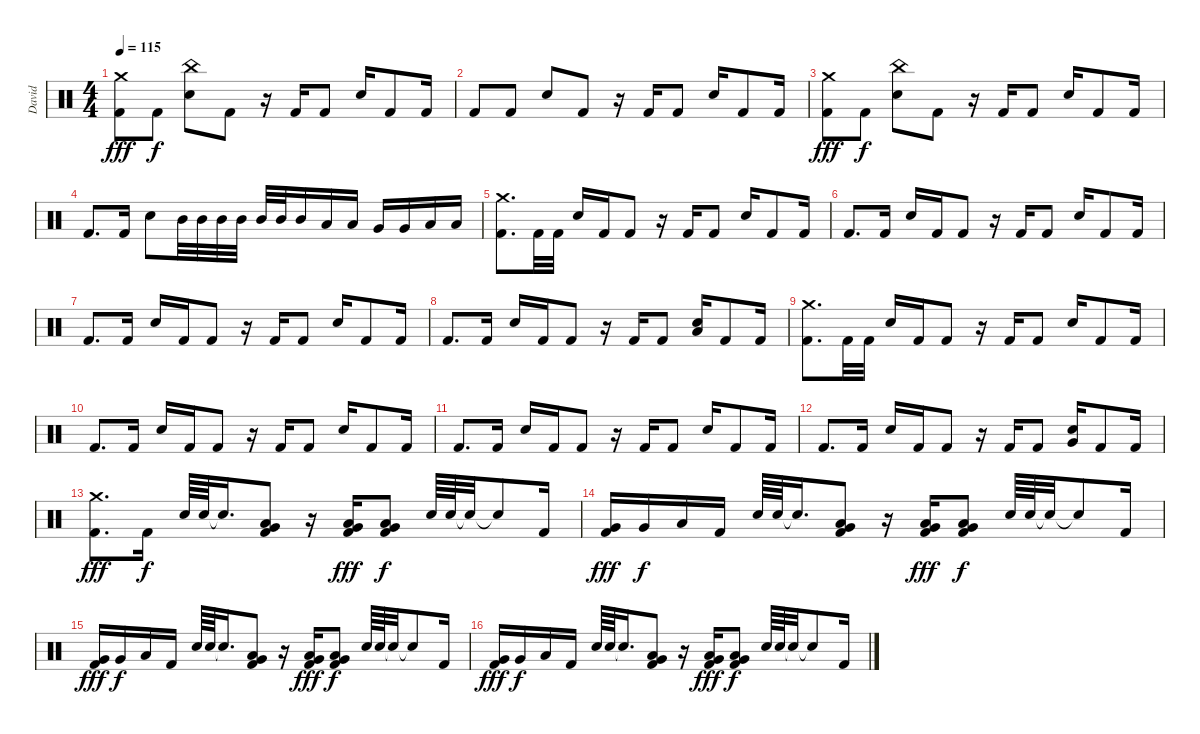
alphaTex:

\track ("David" "David") {instrument percussion}
\staff {score}
\articulation defaults
\ts (4 4)
\tempo 115
\clef neutral
\ks c
("Crash medium (hit)" "Kick (hit) 2").8{dy fff} "Kick (hit) 2".8{dy f} ("China (hit)" "Snare (hit) 2").8 "Kick (hit) 2".8 r.16 "Kick (hit) 2".16 "Kick (hit) 2".8 "Snare (hit) 2".16 "Kick (hit) 2".8 "Kick (hit) 2".16 |
"Kick (hit) 2".8 "Kick (hit) 2".8 "Snare (hit) 2".8 "Kick (hit) 2".8 r.16 "Kick (hit) 2".16 "Kick (hit) 2".8 "Snare (hit) 2".16 "Kick (hit) 2".8 "Kick (hit) 2".16 |
("Crash medium (hit)" "Kick (hit) 2").8{dy fff} "Kick (hit) 2".8{dy f} ("China (hit)" "Snare (hit) 2").8 "Kick (hit) 2".8 r.16 "Kick (hit) 2".16 "Kick (hit) 2".8 "Snare (hit) 2".16 "Kick (hit) 2".8 "Kick (hit) 2".16 |
"Kick (hit) 2".8{d} "Kick (hit) 2".16 "Snare (hit) 2".8 "Mid Tom (hit)".32 "Mid Tom (hit)".32 "Mid Tom (hit)".32 "Mid Tom (hit)".32 "Mid Tom (hit)".32 "Mid Tom (hit)".32 "Mid Tom (hit)".16 "Low Tom (hit)".16 "Low Tom (hit)".16 "Very Low Tom (hit)".16 "Very Low Tom (hit)".16 "Low Floor Tom (hit)".16 "Low Floor Tom (hit)".16 |
("Crash medium (hit)" "Kick (hit) 2").8{d} "Kick (hit) 2".32 "Kick (hit) 2".32 "Snare (hit) 2".16 "Kick (hit) 2".16 "Kick (hit) 2".8 r.16 "Kick (hit) 2".16 "Kick (hit) 2".8 "Snare (hit) 2".16 "Kick (hit) 2".8 "Kick (hit) 2".16 |
"Kick (hit) 2".8{d} "Kick (hit) 2".16 "Snare (hit) 2".16 "Kick (hit) 2".16 "Kick (hit) 2".8 r.16 "Kick (hit) 2".16 "Kick (hit) 2".8 "Snare (hit) 2".16 "Kick (hit) 2".8 "Kick (hit) 2".16 |
"Kick (hit) 2".8{d} "Kick (hit) 2".16 "Snare (hit) 2".16 "Kick (hit) 2".16 "Kick (hit) 2".8 r.16 "Kick (hit) 2".16 "Kick (hit) 2".8 "Snare (hit) 2".16 "Kick (hit) 2".8 "Kick (hit) 2".16 |
"Kick (hit) 2".8{d} "Kick (hit) 2".16 "Snare (hit) 2".16 "Kick (hit) 2".16 "Kick (hit) 2".8 r.16 "Kick (hit) 2".16 "Kick (hit) 2".8 ("Snare (hit) 2" "Low Floor Tom (hit)").16 "Kick (hit) 2".8 "Kick (hit) 2".16 |
("Crash medium (hit)" "Kick (hit) 2").8{d} "Kick (hit) 2".32 "Kick (hit) 2".32 "Snare (hit) 2".16 "Kick (hit) 2".16 "Kick (hit) 2".8 r.16 "Kick (hit) 2".16 "Kick (hit) 2".8 "Snare (hit) 2".16 "Kick (hit) 2".8 "Kick (hit) 2".16 |
"Kick (hit) 2".8{d} "Kick (hit) 2".16 "Snare (hit) 2".16 "Kick (hit) 2".16 "Kick (hit) 2".8 r.16 "Kick (hit) 2".16 "Kick (hit) 2".8 "Snare (hit) 2".16 "Kick (hit) 2".8 "Kick (hit) 2".16 |
"Kick (hit) 2".8{d} "Kick (hit) 2".16 "Snare (hit) 2".16 "Kick (hit) 2".16 "Kick (hit) 2".8 r.16 "Kick (hit) 2".16 "Kick (hit) 2".8 "Snare (hit) 2".16 "Kick (hit) 2".8 "Kick (hit) 2".16 |
"Kick (hit) 2".8{d} "Kick (hit) 2".16 "Snare (hit) 2".16 "Kick (hit) 2".16 "Kick (hit) 2".8 r.16 "Kick (hit) 2".16 "Kick (hit) 2".8 ("Snare (hit) 2" "Very Low Tom (hit)").16 "Kick (hit) 2".8 "Kick (hit) 2".16 |
("Crash medium (hit)" "Kick (hit) 2").8{d dy fff} "Kick (hit) 2".16{dy f} "Snare (hit) 2".64 "Snare (hit) 2".64 "Snare (hit)"{t}.16{d} ("Low Tom (hit)" "Very Low Tom (hit)" "Kick (hit) 2").8 r.16 ("Very Low Tom (hit)" "Low Floor Tom (hit)" "Kick (hit) 2").16{dy fff} ("Very Low Tom (hit)" "Low Floor Tom (hit)" "Kick (hit) 2").8{dy f} "Snare (hit) 2".64 "Snare (hit) 2".64 "Snare (hit)"{t}.32 "Snare (hit)"{t}.8 "Kick (hit) 2".16 |
("Very Low Tom (hit)" "Kick (hit) 2").16{dy fff} "Very Low Tom (hit)".16{dy f} "Low Floor Tom (hit)".16 "Kick (hit) 2".16 "Snare (hit) 2".64 "Snare (hit) 2".64 "Snare (hit)"{t}.16{d} ("Low Tom (hit)" "Very Low Tom (hit)" "Kick (hit) 2").8 r.16 ("Very Low Tom (hit)" "Low Floor Tom (hit)" "Kick (hit) 2").16{dy fff} ("Very Low Tom (hit)" "Low Floor Tom (hit)" "Kick (hit) 2").8{dy f} "Snare (hit) 2".64 "Snare (hit) 2".64 "Snare (hit)"{t}.32 "Snare (hit)"{t}.8 "Kick (hit) 2".16 |
("Very Low Tom (hit)" "Kick (hit) 2").16{dy fff} "Very Low Tom (hit)".16{dy f} "Low Floor Tom (hit)".16 "Kick (hit) 2".16 "Snare (hit) 2".64 "Snare (hit) 2".64 "Snare (hit)"{t}.16{d} ("Low Tom (hit)" "Very Low Tom (hit)" "Kick (hit) 2").8 r.16 ("Very Low Tom (hit)" "Low Floor Tom (hit)" "Kick (hit) 2").16{dy fff} ("Very Low Tom (hit)" "Low Floor Tom (hit)" "Kick (hit) 2").8{dy f} "Snare (hit) 2".64 "Snare (hit) 2".64 "Snare (hit)"{t}.32 "Snare (hit)"{t}.8 "Kick (hit) 2".16 |
("Very Low Tom (hit)" "Kick (hit) 2").16{dy fff} "Very Low Tom (hit)".16{dy f} "Low Floor Tom (hit)".16 "Kick (hit) 2".16 "Snare (hit) 2".64 "Snare (hit) 2".64 "Snare (hit)"{t}.16{d} ("Low Tom (hit)" "Very Low Tom (hit)" "Kick (hit) 2").8 r.16 ("Very Low Tom (hit)" "Low Floor Tom (hit)" "Kick (hit) 2").16{dy fff} ("Very Low Tom (hit)" "Low Floor Tom (hit)" "Kick (hit) 2").8{dy f} "Snare (hit) 2".64 "Snare (hit) 2".64 "Snare (hit)"{t}.32 "Snare (hit)"{t}.8 "Kick (hit) 2".16
